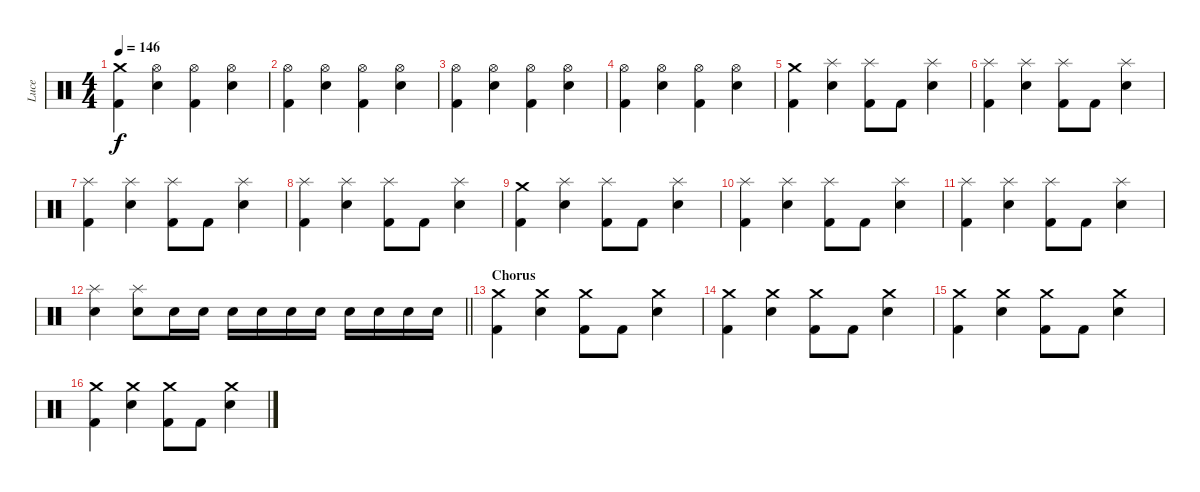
\track ("Luce" "Luce") {instrument percussion}
\staff {score}
\articulation defaults
\ts (4 4)
\tempo 146
\clef neutral
\ks c
("Crash medium (hit)" "Kick (hit) 2").4{dy f} ("Hi-Hat (open)" "Electric Snare (hit)").4 ("Hi-Hat (open)" "Kick (hit) 2").4 ("Hi-Hat (open)" "Electric Snare (hit)").4 |
("Hi-Hat (open)" "Kick (hit) 2").4 ("Hi-Hat (open)" "Electric Snare (hit)").4 ("Hi-Hat (open)" "Kick (hit) 2").4 ("Hi-Hat (open)" "Electric Snare (hit)").4 |
("Kick (hit) 2" "Hi-Hat (open)").4 ("Electric Snare (hit)" "Hi-Hat (open)").4 ("Kick (hit) 2" "Hi-Hat (open)").4 ("Electric Snare (hit)" "Hi-Hat (open)").4 |
("Kick (hit) 2" "Hi-Hat (open)").4 ("Electric Snare (hit)" "Hi-Hat (open)").4 ("Kick (hit) 2" "Hi-Hat (open)").4 ("Electric Snare (hit)" "Hi-Hat (open)").4 |
("Kick (hit) 2" "Crash medium (hit)").4 ("Splash (hit)" "Electric Snare (hit)").4 ("Kick (hit) 2" "Splash (hit)").8 "Kick (hit) 2".8 ("Splash (hit)" "Electric Snare (hit)").4 |
("Kick (hit) 2" "Splash (hit)").4 ("Splash (hit)" "Electric Snare (hit)").4 ("Kick (hit) 2" "Splash (hit)").8 "Kick (hit) 2".8 ("Splash (hit)" "Electric Snare (hit)").4 |
("Kick (hit) 2" "Splash (hit)").4 ("Electric Snare (hit)" "Splash (hit)").4 ("Kick (hit) 2" "Splash (hit)").8 "Kick (hit) 2".8 ("Electric Snare (hit)" "Splash (hit)").4 |
("Kick (hit) 2" "Splash (hit)").4 ("Electric Snare (hit)" "Splash (hit)").4 ("Kick (hit) 2" "Splash (hit)").8 "Kick (hit) 2".8 ("Electric Snare (hit)" "Splash (hit)").4 |
("Kick (hit) 2" "Crash medium (hit)").4 ("Splash (hit)" "Electric Snare (hit)").4 ("Kick (hit) 2" "Splash (hit)").8 "Kick (hit) 2".8 ("Splash (hit)" "Electric Snare (hit)").4 |
("Kick (hit) 2" "Splash (hit)").4 ("Splash (hit)" "Electric Snare (hit)").4 ("Kick (hit) 2" "Splash (hit)").8 "Kick (hit) 2".8 ("Splash (hit)" "Electric Snare (hit)").4 |
("Kick (hit) 2" "Splash (hit)").4 ("Electric Snare (hit)" "Splash (hit)").4 ("Kick (hit) 2" "Splash (hit)").8 "Kick (hit) 2".8 ("Electric Snare (hit)" "Splash (hit)").4 |
\barLineRight lightlight
("Electric Snare (hit)" "Splash (hit)").4 ("Electric Snare (hit)" "Splash (hit)").8 "Electric Snare (hit)".16 "Electric Snare (hit)".16 "Electric Snare (hit)".16 "Electric Snare (hit)".16 "Electric Snare (hit)".16 "Electric Snare (hit)".16 "Electric Snare (hit)".16 "Electric Snare (hit)".16 "Electric Snare (hit)".16 "Electric Snare (hit)".16 |
\section ("" "Chorus")
("Crash medium (hit)" "Kick (hit) 2").4 ("Crash medium (hit)" "Electric Snare (hit)").4 ("Kick (hit) 2" "Crash medium (hit)").8 "Kick (hit) 2".8 ("Crash medium (hit)" "Electric Snare (hit)").4 |
("Kick (hit) 2" "Crash medium (hit)").4 ("Crash medium (hit)" "Electric Snare (hit)").4 ("Kick (hit) 2" "Crash medium (hit)").8 "Kick (hit) 2".8 ("Crash medium (hit)" "Electric Snare (hit)").4 |
("Kick (hit) 2" "Crash medium (hit)").4 ("Electric Snare (hit)" "Crash medium (hit)").4 ("Kick (hit) 2" "Crash medium (hit)").8 "Kick (hit) 2".8 ("Electric Snare (hit)" "Crash medium (hit)").4 |
("Kick (hit) 2" "Crash medium (hit)").4 ("Electric Snare (hit)" "Crash medium (hit)").4 ("Kick (hit) 2" "Crash medium (hit)").8 "Kick (hit) 2".8 ("Electric Snare (hit)" "Crash medium (hit)").4
